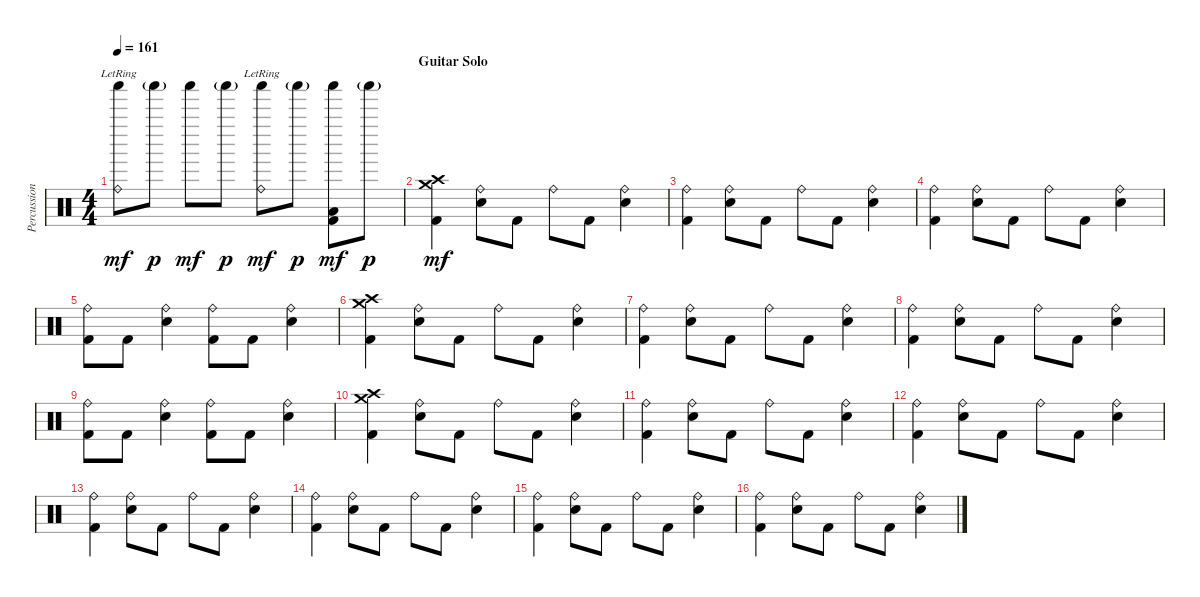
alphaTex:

\track ("Percussion" "Percussion") {instrument percussion}
\staff {score}
\articulation defaults
\ts (4 4)
\tempo 161
\clef neutral
\ks c
("Ride (bell)"{lr} "Shaker (hit)").8{dy mf} "Shaker (hit)"{g}.8{dy p} "Shaker (hit)".8{dy mf} "Shaker (hit)"{g}.8{dy p} ("Ride (bell)"{lr} "Shaker (hit)").8{dy mf} "Shaker (hit)"{g}.8{dy p} ("Shaker (hit)" "Low Floor Tom (hit)" "Kick (hit) 2").8{dy mf} "Shaker (hit)"{g}.8{dy p} |
\section ("" "Guitar Solo")
("Crash high (hit)" "Crash medium (hit)" "Kick (hit) 2").4{dy mf} ("Ride (bell)" "Electric Snare (hit)").8 "Kick (hit) 2".8 "Ride (bell)".8 "Kick (hit) 2".8 ("Ride (bell)" "Electric Snare (hit)").4 |
("Ride (bell)" "Kick (hit) 2").4 ("Ride (bell)" "Electric Snare (hit)").8 "Kick (hit) 2".8 "Ride (bell)".8 "Kick (hit) 2".8 ("Ride (bell)" "Electric Snare (hit)").4 |
("Ride (bell)" "Kick (hit) 2").4 ("Ride (bell)" "Electric Snare (hit)").8 "Kick (hit) 2".8 "Ride (bell)".8 "Kick (hit) 2".8 ("Ride (bell)" "Electric Snare (hit)").4 |
("Ride (bell)" "Kick (hit) 2").8 "Kick (hit) 2".8 ("Ride (bell)" "Electric Snare (hit)").4 ("Ride (bell)" "Kick (hit) 2").8 "Kick (hit) 2".8 ("Ride (bell)" "Electric Snare (hit)").4 |
("Crash high (hit)" "Crash medium (hit)" "Kick (hit) 2").4 ("Ride (bell)" "Electric Snare (hit)").8 "Kick (hit) 2".8 "Ride (bell)".8 "Kick (hit) 2".8 ("Ride (bell)" "Electric Snare (hit)").4 |
("Ride (bell)" "Kick (hit) 2").4 ("Ride (bell)" "Electric Snare (hit)").8 "Kick (hit) 2".8 "Ride (bell)".8 "Kick (hit) 2".8 ("Ride (bell)" "Electric Snare (hit)").4 |
("Ride (bell)" "Kick (hit) 2").4 ("Ride (bell)" "Electric Snare (hit)").8 "Kick (hit) 2".8 "Ride (bell)".8 "Kick (hit) 2".8 ("Ride (bell)" "Electric Snare (hit)").4 |
("Ride (bell)" "Kick (hit) 2").8 "Kick (hit) 2".8 ("Ride (bell)" "Electric Snare (hit)").4 ("Ride (bell)" "Kick (hit) 2").8 "Kick (hit) 2".8 ("Ride (bell)" "Electric Snare (hit)").4 |
("Crash medium (hit)" "Crash high (hit)" "Kick (hit) 2").4 ("Ride (bell)" "Electric Snare (hit)").8 "Kick (hit) 2".8 "Ride (bell)".8 "Kick (hit) 2".8 ("Ride (bell)" "Electric Snare (hit)").4 |
("Ride (bell)" "Kick (hit) 2").4 ("Ride (bell)" "Electric Snare (hit)").8 "Kick (hit) 2".8 "Ride (bell)".8 "Kick (hit) 2".8 ("Ride (bell)" "Electric Snare (hit)").4 |
("Ride (bell)" "Kick (hit) 2").4 ("Ride (bell)" "Electric Snare (hit)").8 "Kick (hit) 2".8 "Ride (bell)".8 "Kick (hit) 2".8 ("Ride (bell)" "Electric Snare (hit)").4 |
("Ride (bell)" "Kick (hit) 2").4 ("Ride (bell)" "Electric Snare (hit)").8 "Kick (hit) 2".8 "Ride (bell)".8 "Kick (hit) 2".8 ("Ride (bell)" "Electric Snare (hit)").4 |
("Ride (bell)" "Kick (hit) 2").4 ("Ride (bell)" "Electric Snare (hit)").8 "Kick (hit) 2".8 "Ride (bell)".8 "Kick (hit) 2".8 ("Ride (bell)" "Electric Snare (hit)").4 |
("Ride (bell)" "Kick (hit) 2").4 ("Ride (bell)" "Electric Snare (hit)").8 "Kick (hit) 2".8 "Ride (bell)".8 "Kick (hit) 2".8 ("Ride (bell)" "Electric Snare (hit)").4 |
("Ride (bell)" "Kick (hit) 2").4 ("Ride (bell)" "Electric Snare (hit)").8 "Kick (hit) 2".8 "Ride (bell)".8 "Kick (hit) 2".8 ("Ride (bell)" "Electric Snare (hit)").4
